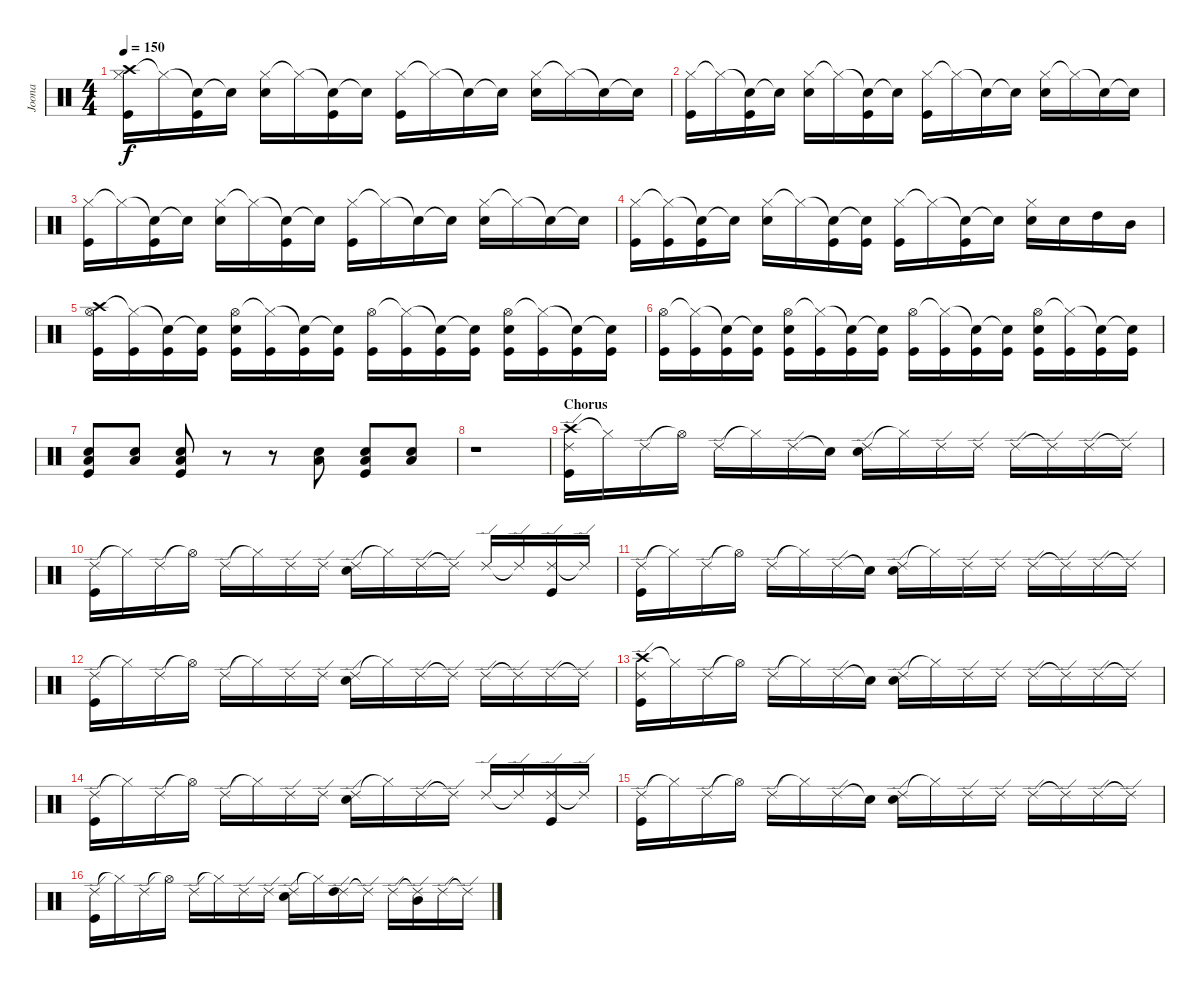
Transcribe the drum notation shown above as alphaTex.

\track ("Joona" "Joona") {instrument percussion}
\staff {score}
\articulation defaults
\ts (4 4)
\tempo 150
\clef neutral
\ks c
("Crash high (hit)" "Hi-Hat (closed)" "Kick (hit)").16{dy f} "Hi-Hat (closed)"{t}.16 ("Snare (hit)"{t} "Kick (hit)").16 "Snare (hit)"{t}.16 ("Hi-Hat (closed)" "Snare (hit) 2").16 "Hi-Hat (closed)"{t}.16 ("Snare (hit)"{t} "Kick (hit)").16 "Snare (hit)"{t}.16 ("Hi-Hat (closed)" "Kick (hit)").16 "Hi-Hat (closed)"{t}.16 "Snare (hit)"{t}.16 "Snare (hit)"{t}.16 ("Hi-Hat (closed)" "Snare (hit) 2").16 "Hi-Hat (closed)"{t}.16 "Snare (hit)"{t}.16 "Snare (hit)"{t}.16 |
("Hi-Hat (closed)" "Kick (hit)").16 "Hi-Hat (closed)"{t}.16 ("Snare (hit)"{t} "Kick (hit)").16 "Snare (hit)"{t}.16 ("Hi-Hat (closed)" "Snare (hit) 2").16 "Hi-Hat (closed)"{t}.16 ("Snare (hit)"{t} "Kick (hit)").16 "Snare (hit)"{t}.16 ("Hi-Hat (closed)" "Kick (hit)").16 "Hi-Hat (closed)"{t}.16 "Snare (hit)"{t}.16 "Snare (hit)"{t}.16 ("Hi-Hat (closed)" "Snare (hit) 2").16 "Hi-Hat (closed)"{t}.16 "Snare (hit)"{t}.16 "Snare (hit)"{t}.16 |
("Hi-Hat (closed)" "Kick (hit)").16 "Hi-Hat (closed)"{t}.16 ("Snare (hit)"{t} "Kick (hit)").16 "Snare (hit)"{t}.16 ("Hi-Hat (closed)" "Snare (hit) 2").16 "Hi-Hat (closed)"{t}.16 ("Snare (hit)"{t} "Kick (hit)").16 "Snare (hit)"{t}.16 ("Hi-Hat (closed)" "Kick (hit)").16 "Hi-Hat (closed)"{t}.16 "Snare (hit)"{t}.16 "Snare (hit)"{t}.16 ("Hi-Hat (closed)" "Snare (hit) 2").16 "Hi-Hat (closed)"{t}.16 "Snare (hit)"{t}.16 "Snare (hit)"{t}.16 |
("Hi-Hat (closed)" "Kick (hit)").16 ("Hi-Hat (closed)"{t} "Kick (hit)").16 ("Snare (hit)"{t} "Kick (hit)").16 "Snare (hit)"{t}.16 ("Hi-Hat (closed)" "Snare (hit) 2").16 "Hi-Hat (closed)"{t}.16 ("Snare (hit)"{t} "Kick (hit)").16 ("Snare (hit)"{t} "Kick (hit)").16 ("Hi-Hat (closed)" "Kick (hit)").16 "Hi-Hat (closed)"{t}.16 ("Snare (hit)"{t} "Kick (hit)").16 "Snare (hit)"{t}.16 ("Hi-Hat (closed)" "Snare (hit) 2").16 "Snare (hit) 2".16 "High Tom (hit)".16 "Mid Tom (hit)".16 |
("Crash high (hit)" "Hi-Hat (open)" "Kick (hit)").16 ("Hi-Hat (closed)"{t} "Kick (hit)").16 ("Snare (hit)"{t} "Kick (hit)").16 ("Snare (hit)"{t} "Kick (hit)").16 ("Hi-Hat (open)" "Snare (hit) 2" "Kick (hit)").16 ("Hi-Hat (closed)"{t} "Kick (hit)").16 ("Snare (hit)"{t} "Kick (hit)").16 ("Snare (hit)"{t} "Kick (hit)").16 ("Hi-Hat (open)" "Kick (hit)").16 ("Hi-Hat (closed)"{t} "Kick (hit)").16 ("Snare (hit)"{t} "Kick (hit)").16 ("Snare (hit)"{t} "Kick (hit)").16 ("Hi-Hat (open)" "Snare (hit) 2" "Kick (hit)").16 ("Hi-Hat (closed)"{t} "Kick (hit)").16 ("Snare (hit)"{t} "Kick (hit)").16 ("Snare (hit)"{t} "Kick (hit)").16 |
("Hi-Hat (open)" "Kick (hit)").16 ("Hi-Hat (closed)"{t} "Kick (hit)").16 ("Snare (hit)"{t} "Kick (hit)").16 ("Snare (hit)"{t} "Kick (hit)").16 ("Hi-Hat (open)" "Snare (hit) 2" "Kick (hit)").16 ("Hi-Hat (closed)"{t} "Kick (hit)").16 ("Snare (hit)"{t} "Kick (hit)").16 ("Snare (hit)"{t} "Kick (hit)").16 ("Hi-Hat (open)" "Kick (hit)").16 ("Hi-Hat (closed)"{t} "Kick (hit)").16 ("Snare (hit)"{t} "Kick (hit)").16 ("Snare (hit)"{t} "Kick (hit)").16 ("Hi-Hat (open)" "Snare (hit) 2" "Kick (hit)").16 ("Hi-Hat (closed)"{t} "Kick (hit)").16 ("Snare (hit)"{t} "Kick (hit)").16 ("Snare (hit)"{t} "Kick (hit)").16 |
("Low Tom (hit)" "Snare (hit) 2" "Kick (hit)").8 ("Low Tom (hit)" "Snare (hit) 2").8 ("Low Tom (hit)" "Snare (hit) 2" "Kick (hit)").8 r.8 r.8 ("Low Tom (hit)" "Snare (hit) 2").8 ("Low Tom (hit)" "Snare (hit) 2" "Kick (hit)").8 ("Low Tom (hit)" "Snare (hit) 2").8 |
r.1 |
\section ("" "Chorus")
("Crash high (hit)" "Ride (edge) 2" "Kick (hit)").16 "Hi-Hat (closed)"{t}.16 "Ride (edge) 2".16 "Hi-Hat (open)"{t}.16 "Ride (edge) 2".16 "Hi-Hat (closed)"{t}.16 "Ride (edge) 2".16 "Snare (hit)"{t}.16 ("Ride (edge) 2" "Snare (hit) 2").16 "Hi-Hat (closed)"{t}.16 "Ride (edge) 2".16 "Ride (edge) 2".16 "Ride (edge) 2".16 "Ride (edge) 2"{t}.16 "Ride (edge) 2".16 "Ride (edge) 2"{t}.16 |
("Ride (edge) 2" "Kick (hit)").16 "Hi-Hat (closed)"{t}.16 "Ride (edge) 2".16 "Hi-Hat (open)"{t}.16 "Ride (edge) 2".16 "Hi-Hat (closed)"{t}.16 "Ride (edge) 2".16 "Ride (edge) 2".16 ("Ride (edge) 2" "Snare (hit) 2").16 "Hi-Hat (closed)"{t}.16 "Ride (edge) 2".16 "Ride (edge) 2"{t}.16 "Ride (edge) 2".16 "Ride (edge) 2"{t}.16 ("Ride (edge) 2" "Kick (hit)").16 "Ride (edge) 2"{t}.16 |
("Ride (edge) 2" "Kick (hit)").16 "Hi-Hat (closed)"{t}.16 "Ride (edge) 2".16 "Hi-Hat (open)"{t}.16 "Ride (edge) 2".16 "Hi-Hat (closed)"{t}.16 "Ride (edge) 2".16 "Snare (hit)"{t}.16 ("Ride (edge) 2" "Snare (hit) 2").16 "Hi-Hat (closed)"{t}.16 "Ride (edge) 2".16 "Ride (edge) 2".16 "Ride (edge) 2".16 "Ride (edge) 2"{t}.16 "Ride (edge) 2".16 "Ride (edge) 2"{t}.16 |
("Ride (edge) 2" "Kick (hit)").16 "Hi-Hat (closed)"{t}.16 "Ride (edge) 2".16 "Hi-Hat (open)"{t}.16 "Ride (edge) 2".16 "Hi-Hat (closed)"{t}.16 "Ride (edge) 2".16 "Ride (edge) 2".16 ("Ride (edge) 2" "Snare (hit) 2").16 "Hi-Hat (closed)"{t}.16 "Ride (edge) 2".16 "Ride (edge) 2"{t}.16 "Ride (edge) 2".16 "Ride (edge) 2"{t}.16 "Ride (edge) 2".16 "Ride (edge) 2"{t}.16 |
("Crash high (hit)" "Ride (edge) 2" "Kick (hit)").16 "Hi-Hat (closed)"{t}.16 "Ride (edge) 2".16 "Hi-Hat (open)"{t}.16 "Ride (edge) 2".16 "Hi-Hat (closed)"{t}.16 "Ride (edge) 2".16 "Snare (hit)"{t}.16 ("Ride (edge) 2" "Snare (hit) 2").16 "Hi-Hat (closed)"{t}.16 "Ride (edge) 2".16 "Ride (edge) 2".16 "Ride (edge) 2".16 "Ride (edge) 2"{t}.16 "Ride (edge) 2".16 "Ride (edge) 2"{t}.16 |
("Ride (edge) 2" "Kick (hit)").16 "Hi-Hat (closed)"{t}.16 "Ride (edge) 2".16 "Hi-Hat (open)"{t}.16 "Ride (edge) 2".16 "Hi-Hat (closed)"{t}.16 "Ride (edge) 2".16 "Ride (edge) 2".16 ("Ride (edge) 2" "Snare (hit) 2").16 "Hi-Hat (closed)"{t}.16 "Ride (edge) 2".16 "Ride (edge) 2"{t}.16 "Ride (edge) 2".16 "Ride (edge) 2"{t}.16 ("Ride (edge) 2" "Kick (hit)").16 "Ride (edge) 2"{t}.16 |
("Ride (edge) 2" "Kick (hit)").16 "Hi-Hat (closed)"{t}.16 "Ride (edge) 2".16 "Hi-Hat (open)"{t}.16 "Ride (edge) 2".16 "Hi-Hat (closed)"{t}.16 "Ride (edge) 2".16 "Snare (hit)"{t}.16 ("Ride (edge) 2" "Snare (hit) 2").16 "Hi-Hat (closed)"{t}.16 "Ride (edge) 2".16 "Ride (edge) 2".16 "Ride (edge) 2".16 "Ride (edge) 2"{t}.16 "Ride (edge) 2".16 "Ride (edge) 2"{t}.16 |
("Ride (edge) 2" "Kick (hit)").16 "Hi-Hat (closed)"{t}.16 "Ride (edge) 2".16 "Hi-Hat (open)"{t}.16 "Ride (edge) 2".16 "Hi-Hat (closed)"{t}.16 "Ride (edge) 2".16 "Ride (edge) 2".16 ("Ride (edge) 2" "Snare (hit) 2").16 "Hi-Hat (closed)"{t}.16 ("Ride (edge) 2" "High Tom (hit)").16 "Ride (edge) 2"{t}.16 "Ride (edge) 2".16 ("Ride (edge) 2"{t} "Mid Tom (hit)").16 "Ride (edge) 2".16 "Ride (edge) 2"{t}.16
